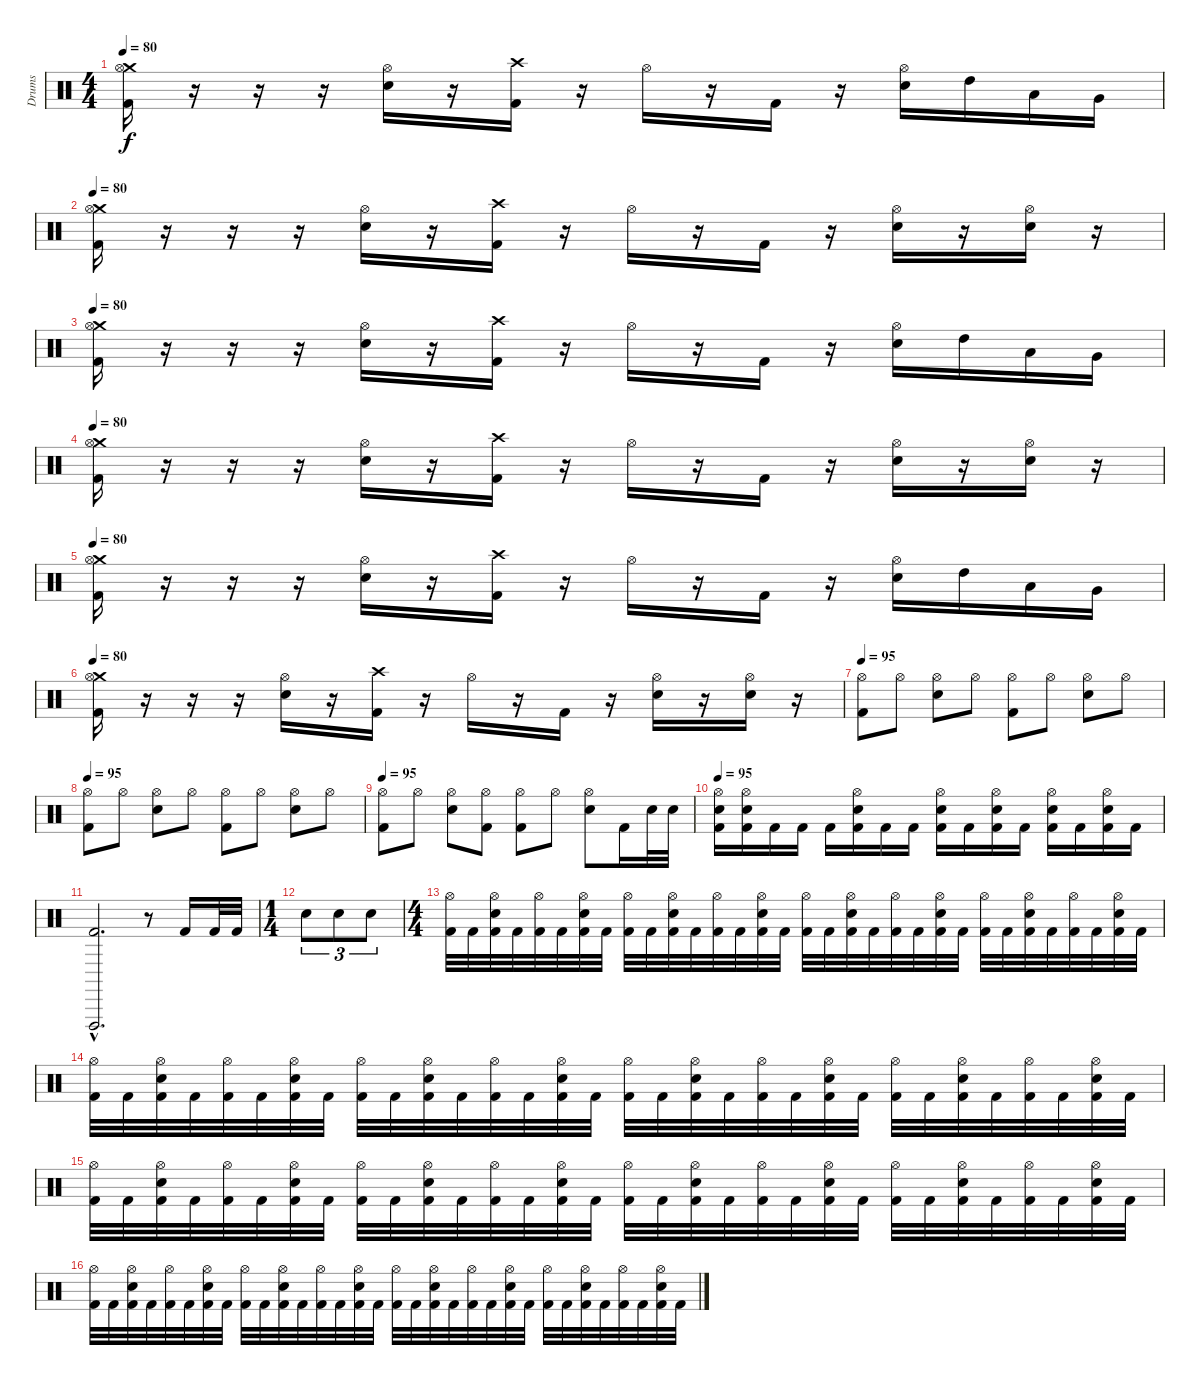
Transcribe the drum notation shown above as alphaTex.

\track ("Drums" "Drums") {instrument percussion}
\staff {score}
\articulation defaults
\ts (4 4)
\tempo 80
\clef neutral
\ks c
("Crash medium (hit)" "Hi-Hat (open)" "Kick (hit) 2").16{dy f} r.16 r.16 r.16 ("Hi-Hat (open)" "Electric Snare (hit)").16 r.16 ("Crash high (hit)" "Kick (hit) 2").16 r.16 "Hi-Hat (open)".16 r.16 "Kick (hit) 2".16 r.16 ("Hi-Hat (open)" "Electric Snare (hit)").16 "High Tom (hit)".16 "Low Tom (hit)".16 "Very Low Tom (hit)".16 |
\tempo 80
("Crash medium (hit)" "Hi-Hat (open)" "Kick (hit) 2").16 r.16 r.16 r.16 ("Hi-Hat (open)" "Electric Snare (hit)").16 r.16 ("Crash high (hit)" "Kick (hit) 2").16 r.16 "Hi-Hat (open)".16 r.16 "Kick (hit) 2".16 r.16 ("Hi-Hat (open)" "Electric Snare (hit)").16 r.16 ("Hi-Hat (open)" "Electric Snare (hit)").16 r.16 |
\tempo 80
("Crash medium (hit)" "Hi-Hat (open)" "Kick (hit) 2").16 r.16 r.16 r.16 ("Hi-Hat (open)" "Electric Snare (hit)").16 r.16 ("Crash high (hit)" "Kick (hit) 2").16 r.16 "Hi-Hat (open)".16 r.16 "Kick (hit) 2".16 r.16 ("Hi-Hat (open)" "Electric Snare (hit)").16 "High Tom (hit)".16 "Low Tom (hit)".16 "Very Low Tom (hit)".16 |
\tempo 80
("Crash medium (hit)" "Hi-Hat (open)" "Kick (hit) 2").16 r.16 r.16 r.16 ("Hi-Hat (open)" "Electric Snare (hit)").16 r.16 ("Crash high (hit)" "Kick (hit) 2").16 r.16 "Hi-Hat (open)".16 r.16 "Kick (hit) 2".16 r.16 ("Hi-Hat (open)" "Electric Snare (hit)").16 r.16 ("Hi-Hat (open)" "Electric Snare (hit)").16 r.16 |
\tempo 80
("Crash medium (hit)" "Hi-Hat (open)" "Kick (hit) 2").16 r.16 r.16 r.16 ("Hi-Hat (open)" "Electric Snare (hit)").16 r.16 ("Crash high (hit)" "Kick (hit) 2").16 r.16 "Hi-Hat (open)".16 r.16 "Kick (hit) 2".16 r.16 ("Hi-Hat (open)" "Electric Snare (hit)").16 "High Tom (hit)".16 "Low Tom (hit)".16 "Very Low Tom (hit)".16 |
\tempo 80
("Crash medium (hit)" "Hi-Hat (open)" "Kick (hit) 2").16 r.16 r.16 r.16 ("Hi-Hat (open)" "Electric Snare (hit)").16 r.16 ("Crash high (hit)" "Kick (hit) 2").16 r.16 "Hi-Hat (open)".16 r.16 "Kick (hit) 2".16 r.16 ("Hi-Hat (open)" "Electric Snare (hit)").16 r.16 ("Hi-Hat (open)" "Electric Snare (hit)").16 r.16 |
\tempo 95
("Hi-Hat (open)" "Kick (hit) 2").8 "Hi-Hat (open)".8 ("Hi-Hat (open)" "Electric Snare (hit)").8 "Hi-Hat (open)".8 ("Hi-Hat (open)" "Kick (hit) 2").8 "Hi-Hat (open)".8 ("Hi-Hat (open)" "Electric Snare (hit)").8 "Hi-Hat (open)".8 |
\tempo 95
("Hi-Hat (open)" "Kick (hit) 2").8 "Hi-Hat (open)".8 ("Hi-Hat (open)" "Electric Snare (hit)").8 "Hi-Hat (open)".8 ("Hi-Hat (open)" "Kick (hit) 2").8 "Hi-Hat (open)".8 ("Hi-Hat (open)" "Electric Snare (hit)").8 "Hi-Hat (open)".8 |
\tempo 95
("Hi-Hat (open)" "Kick (hit) 2").8 "Hi-Hat (open)".8 ("Hi-Hat (open)" "Electric Snare (hit)").8 ("Hi-Hat (open)" "Kick (hit) 2").8 ("Hi-Hat (open)" "Kick (hit) 2").8 "Hi-Hat (open)".8 ("Hi-Hat (open)" "Electric Snare (hit)").8 "Kick (hit) 2".16 "Electric Snare (hit)".32 "Electric Snare (hit)".32 |
\tempo 95
("Hi-Hat (open)" "Kick (hit) 2" "Electric Snare (hit)").16 ("Hi-Hat (open)" "Kick (hit) 2" "Electric Snare (hit)").16 "Kick (hit) 2".16 "Kick (hit) 2".16 "Kick (hit) 2".16 ("Hi-Hat (open)" "Electric Snare (hit)" "Kick (hit) 2").16 "Kick (hit) 2".16 "Kick (hit) 2".16 ("Hi-Hat (open)" "Electric Snare (hit)" "Kick (hit) 2").16 "Kick (hit) 2".16 ("Hi-Hat (open)" "Electric Snare (hit)" "Kick (hit) 2").16 "Kick (hit) 2".16 ("Hi-Hat (open)" "Electric Snare (hit)" "Kick (hit) 2").16 "Kick (hit) 2".16 ("Hi-Hat (open)" "Electric Snare (hit)" "Kick (hit) 2").16 "Kick (hit) 2".16 |
("Vibraslap (hit)"{hac} "Kick (hit) 2"{hac}).2{d} r.8 "Kick (hit) 2".16 "Kick (hit) 2".32 "Kick (hit) 2".32 |
\ts (1 4)
"Electric Snare (hit)".8{tu (3 2)} "Electric Snare (hit)".8{tu (3 2)} "Electric Snare (hit)".8{tu (3 2)} |
\ts (4 4)
("Hi-Hat (open)" "Kick (hit) 2").32 "Kick (hit) 2".32 ("Hi-Hat (open)" "Electric Snare (hit)" "Kick (hit) 2").32 "Kick (hit) 2".32 ("Hi-Hat (open)" "Kick (hit) 2").32 "Kick (hit) 2".32 ("Hi-Hat (open)" "Electric Snare (hit)" "Kick (hit) 2").32 "Kick (hit) 2".32 ("Hi-Hat (open)" "Kick (hit) 2").32 "Kick (hit) 2".32 ("Hi-Hat (open)" "Electric Snare (hit)" "Kick (hit) 2").32 "Kick (hit) 2".32 ("Hi-Hat (open)" "Kick (hit) 2").32 "Kick (hit) 2".32 ("Hi-Hat (open)" "Electric Snare (hit)" "Kick (hit) 2").32 "Kick (hit) 2".32 ("Hi-Hat (open)" "Kick (hit) 2").32 "Kick (hit) 2".32 ("Hi-Hat (open)" "Electric Snare (hit)" "Kick (hit) 2").32 "Kick (hit) 2".32 ("Hi-Hat (open)" "Kick (hit) 2").32 "Kick (hit) 2".32 ("Hi-Hat (open)" "Electric Snare (hit)" "Kick (hit) 2").32 "Kick (hit) 2".32 ("Hi-Hat (open)" "Kick (hit) 2").32 "Kick (hit) 2".32 ("Hi-Hat (open)" "Electric Snare (hit)" "Kick (hit) 2").32 "Kick (hit) 2".32 ("Hi-Hat (open)" "Kick (hit) 2").32 "Kick (hit) 2".32 ("Hi-Hat (open)" "Electric Snare (hit)" "Kick (hit) 2").32 "Kick (hit) 2".32 |
("Hi-Hat (open)" "Kick (hit) 2").32 "Kick (hit) 2".32 ("Hi-Hat (open)" "Electric Snare (hit)" "Kick (hit) 2").32 "Kick (hit) 2".32 ("Hi-Hat (open)" "Kick (hit) 2").32 "Kick (hit) 2".32 ("Hi-Hat (open)" "Electric Snare (hit)" "Kick (hit) 2").32 "Kick (hit) 2".32 ("Hi-Hat (open)" "Kick (hit) 2").32 "Kick (hit) 2".32 ("Hi-Hat (open)" "Electric Snare (hit)" "Kick (hit) 2").32 "Kick (hit) 2".32 ("Hi-Hat (open)" "Kick (hit) 2").32 "Kick (hit) 2".32 ("Hi-Hat (open)" "Electric Snare (hit)" "Kick (hit) 2").32 "Kick (hit) 2".32 ("Hi-Hat (open)" "Kick (hit) 2").32 "Kick (hit) 2".32 ("Hi-Hat (open)" "Electric Snare (hit)" "Kick (hit) 2").32 "Kick (hit) 2".32 ("Hi-Hat (open)" "Kick (hit) 2").32 "Kick (hit) 2".32 ("Hi-Hat (open)" "Electric Snare (hit)" "Kick (hit) 2").32 "Kick (hit) 2".32 ("Hi-Hat (open)" "Kick (hit) 2").32 "Kick (hit) 2".32 ("Hi-Hat (open)" "Electric Snare (hit)" "Kick (hit) 2").32 "Kick (hit) 2".32 ("Hi-Hat (open)" "Kick (hit) 2").32 "Kick (hit) 2".32 ("Hi-Hat (open)" "Electric Snare (hit)" "Kick (hit) 2").32 "Kick (hit) 2".32 |
("Hi-Hat (open)" "Kick (hit) 2").32 "Kick (hit) 2".32 ("Hi-Hat (open)" "Electric Snare (hit)" "Kick (hit) 2").32 "Kick (hit) 2".32 ("Hi-Hat (open)" "Kick (hit) 2").32 "Kick (hit) 2".32 ("Hi-Hat (open)" "Electric Snare (hit)" "Kick (hit) 2").32 "Kick (hit) 2".32 ("Hi-Hat (open)" "Kick (hit) 2").32 "Kick (hit) 2".32 ("Hi-Hat (open)" "Electric Snare (hit)" "Kick (hit) 2").32 "Kick (hit) 2".32 ("Hi-Hat (open)" "Kick (hit) 2").32 "Kick (hit) 2".32 ("Hi-Hat (open)" "Electric Snare (hit)" "Kick (hit) 2").32 "Kick (hit) 2".32 ("Hi-Hat (open)" "Kick (hit) 2").32 "Kick (hit) 2".32 ("Hi-Hat (open)" "Electric Snare (hit)" "Kick (hit) 2").32 "Kick (hit) 2".32 ("Hi-Hat (open)" "Kick (hit) 2").32 "Kick (hit) 2".32 ("Hi-Hat (open)" "Electric Snare (hit)" "Kick (hit) 2").32 "Kick (hit) 2".32 ("Hi-Hat (open)" "Kick (hit) 2").32 "Kick (hit) 2".32 ("Hi-Hat (open)" "Electric Snare (hit)" "Kick (hit) 2").32 "Kick (hit) 2".32 ("Hi-Hat (open)" "Kick (hit) 2").32 "Kick (hit) 2".32 ("Hi-Hat (open)" "Electric Snare (hit)" "Kick (hit) 2").32 "Kick (hit) 2".32 |
("Hi-Hat (open)" "Kick (hit) 2").32 "Kick (hit) 2".32 ("Hi-Hat (open)" "Electric Snare (hit)" "Kick (hit) 2").32 "Kick (hit) 2".32 ("Hi-Hat (open)" "Kick (hit) 2").32 "Kick (hit) 2".32 ("Hi-Hat (open)" "Electric Snare (hit)" "Kick (hit) 2").32 "Kick (hit) 2".32 ("Hi-Hat (open)" "Kick (hit) 2").32 "Kick (hit) 2".32 ("Hi-Hat (open)" "Electric Snare (hit)" "Kick (hit) 2").32 "Kick (hit) 2".32 ("Hi-Hat (open)" "Kick (hit) 2").32 "Kick (hit) 2".32 ("Hi-Hat (open)" "Electric Snare (hit)" "Kick (hit) 2").32 "Kick (hit) 2".32 ("Hi-Hat (open)" "Kick (hit) 2").32 "Kick (hit) 2".32 ("Hi-Hat (open)" "Electric Snare (hit)" "Kick (hit) 2").32 "Kick (hit) 2".32 ("Hi-Hat (open)" "Kick (hit) 2").32 "Kick (hit) 2".32 ("Hi-Hat (open)" "Electric Snare (hit)" "Kick (hit) 2").32 "Kick (hit) 2".32 ("Hi-Hat (open)" "Kick (hit) 2").32 "Kick (hit) 2".32 ("Hi-Hat (open)" "Electric Snare (hit)" "Kick (hit) 2").32 "Kick (hit) 2".32 ("Hi-Hat (open)" "Kick (hit) 2").32 "Kick (hit) 2".32 ("Hi-Hat (open)" "Electric Snare (hit)" "Kick (hit) 2").32 "Kick (hit) 2".32
